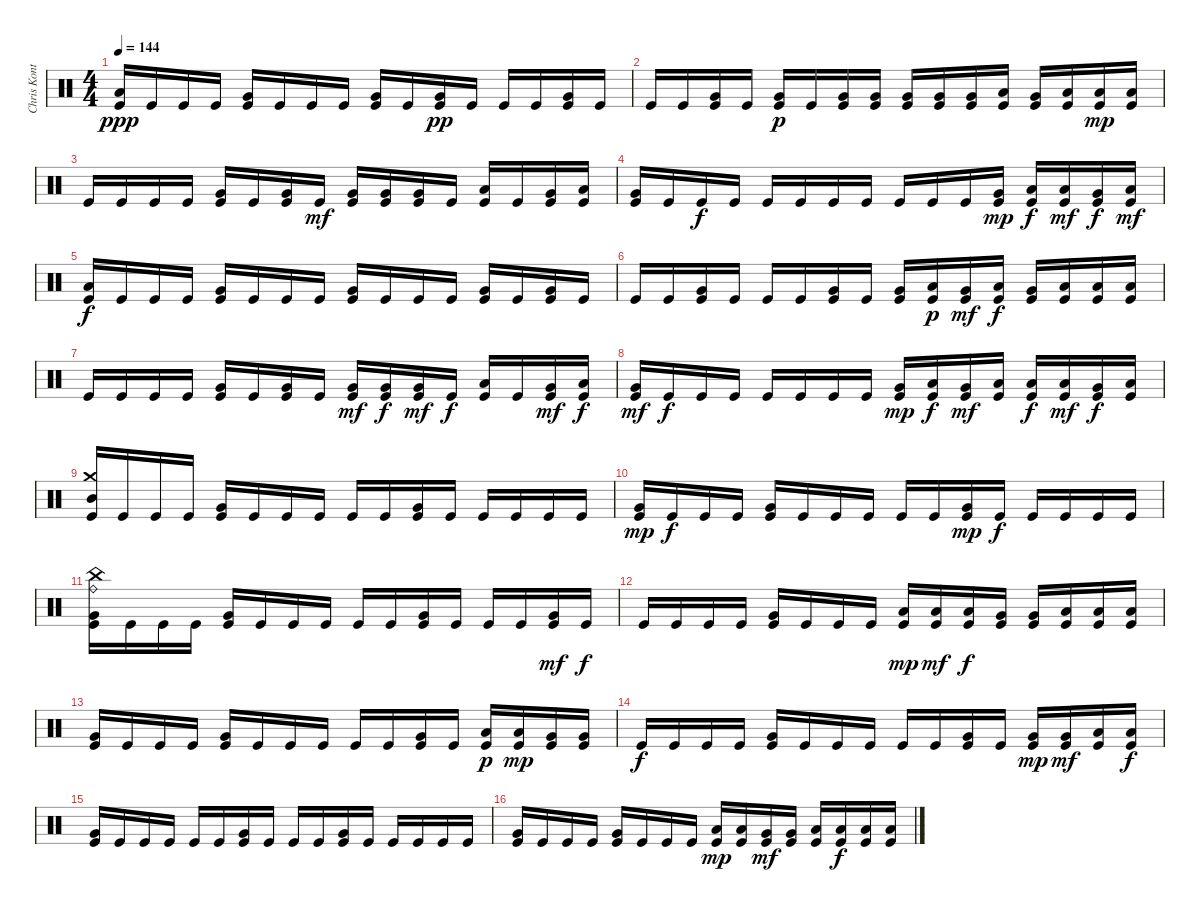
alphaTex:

\track ("Chris Kontos" "Chris Kont") {instrument percussion}
\staff {score}
\articulation defaults
\ts (4 4)
\tempo 144
\clef neutral
\ks c
("Low Tom (hit)" "Kick (hit)").16{dy ppp} "Kick (hit)".16 "Kick (hit)".16 "Kick (hit)".16 ("Very Low Tom (hit)" "Kick (hit)").16 "Kick (hit)".16 "Kick (hit)".16 "Kick (hit)".16 ("Very Low Tom (hit)" "Kick (hit)").16 "Kick (hit)".16 ("Very Low Tom (hit)" "Kick (hit)").16{dy pp} "Kick (hit)".16 "Kick (hit)".16 "Kick (hit)".16 ("Very Low Tom (hit)" "Kick (hit)").16 "Kick (hit)".16 |
"Kick (hit)".16 "Kick (hit)".16 ("Very Low Tom (hit)" "Kick (hit)").16 "Kick (hit)".16 ("Very Low Tom (hit)" "Kick (hit)").16{dy p} "Kick (hit)".16 ("Very Low Tom (hit)" "Kick (hit)").16 ("Very Low Tom (hit)" "Kick (hit)").16 ("Very Low Tom (hit)" "Kick (hit)").16 ("Very Low Tom (hit)" "Kick (hit)").16 ("Very Low Tom (hit)" "Kick (hit)").16 ("Low Floor Tom (hit)" "Kick (hit)").16 ("Very Low Tom (hit)" "Kick (hit)").16 ("Low Floor Tom (hit)" "Kick (hit)").16 ("Low Floor Tom (hit)" "Kick (hit)").16{dy mp} ("Low Floor Tom (hit)" "Kick (hit)").16 |
"Kick (hit)".16 "Kick (hit)".16 "Kick (hit)".16 "Kick (hit)".16 ("Very Low Tom (hit)" "Kick (hit)").16 "Kick (hit)".16 ("Very Low Tom (hit)" "Kick (hit)").16 "Kick (hit)".16{dy mf} ("Very Low Tom (hit)" "Kick (hit)").16 ("Very Low Tom (hit)" "Kick (hit)").16 ("Very Low Tom (hit)" "Kick (hit)").16 "Kick (hit)".16 ("Low Floor Tom (hit)" "Kick (hit)").16 "Kick (hit)".16 ("Very Low Tom (hit)" "Kick (hit)").16 ("Low Floor Tom (hit)" "Kick (hit)").16 |
("Very Low Tom (hit)" "Kick (hit)").16 "Kick (hit)".16 "Kick (hit)".16{dy f} "Kick (hit)".16 "Kick (hit)".16 "Kick (hit)".16 "Kick (hit)".16 "Kick (hit)".16 "Kick (hit)".16 "Kick (hit)".16 "Kick (hit)".16 ("Very Low Tom (hit)" "Kick (hit)").16{dy mp} ("Low Floor Tom (hit)" "Kick (hit)").16{dy f} ("Low Tom (hit)" "Kick (hit)").16{dy mf} ("Very Low Tom (hit)" "Kick (hit)").16{dy f} ("Low Floor Tom (hit)" "Kick (hit)").16{dy mf} |
("Low Tom (hit)" "Kick (hit)").16{dy f} "Kick (hit)".16 "Kick (hit)".16 "Kick (hit)".16 ("Very Low Tom (hit)" "Kick (hit)").16 "Kick (hit)".16 "Kick (hit)".16 "Kick (hit)".16 ("Very Low Tom (hit)" "Kick (hit)").16 "Kick (hit)".16 "Kick (hit)".16 "Kick (hit)".16 ("Very Low Tom (hit)" "Kick (hit)").16 "Kick (hit)".16 ("Very Low Tom (hit)" "Kick (hit)").16 "Kick (hit)".16 |
"Kick (hit)".16 "Kick (hit)".16 ("Very Low Tom (hit)" "Kick (hit)").16 "Kick (hit)".16 "Kick (hit)".16 "Kick (hit)".16 ("Very Low Tom (hit)" "Kick (hit)").16 "Kick (hit)".16 ("Very Low Tom (hit)" "Kick (hit)").16 ("Low Tom (hit)" "Kick (hit)").16{dy p} ("Very Low Tom (hit)" "Kick (hit)").16{dy mf} ("Low Floor Tom (hit)" "Kick (hit)").16{dy f} ("Very Low Tom (hit)" "Kick (hit)").16 ("Low Floor Tom (hit)" "Kick (hit)").16 ("Low Floor Tom (hit)" "Kick (hit)").16 ("Low Floor Tom (hit)" "Kick (hit)").16 |
"Kick (hit)".16 "Kick (hit)".16 "Kick (hit)".16 "Kick (hit)".16 ("Very Low Tom (hit)" "Kick (hit)").16 "Kick (hit)".16 ("Very Low Tom (hit)" "Kick (hit)").16 "Kick (hit)".16 ("Very Low Tom (hit)" "Kick (hit)").16{dy mf} ("Very Low Tom (hit)" "Kick (hit)").16{dy f} ("Very Low Tom (hit)" "Kick (hit)").16{dy mf} "Kick (hit)".16{dy f} ("Low Floor Tom (hit)" "Kick (hit)").16 "Kick (hit)".16 ("Very Low Tom (hit)" "Kick (hit)").16{dy mf} ("Low Floor Tom (hit)" "Kick (hit)").16{dy f} |
("Very Low Tom (hit)" "Kick (hit)").16{dy mf} "Kick (hit)".16{dy f} "Kick (hit)".16 "Kick (hit)".16 "Kick (hit)".16 "Kick (hit)".16 "Kick (hit)".16 "Kick (hit)".16 ("Very Low Tom (hit)" "Kick (hit)").16{dy mp} ("Low Floor Tom (hit)" "Kick (hit)").16{dy f} ("Very Low Tom (hit)" "Kick (hit)").16{dy mf} ("Low Tom (hit)" "Kick (hit)").16 ("Low Floor Tom (hit)" "Kick (hit)").16{dy f} ("Low Tom (hit)" "Kick (hit)").16{dy mf} ("Very Low Tom (hit)" "Kick (hit)").16{dy f} ("Low Floor Tom (hit)" "Kick (hit)").16 |
("Crash medium (hit)" "Mid Tom (hit)" "Kick (hit)").16 "Kick (hit)".16 "Kick (hit)".16 "Kick (hit)".16 ("Very Low Tom (hit)" "Kick (hit)").16 "Kick (hit)".16 "Kick (hit)".16 "Kick (hit)".16 "Kick (hit)".16 "Kick (hit)".16 ("Very Low Tom (hit)" "Kick (hit)").16 "Kick (hit)".16 "Kick (hit)".16 "Kick (hit)".16 "Kick (hit)".16 "Kick (hit)".16 |
("Very Low Tom (hit)" "Kick (hit)").16{dy mp} "Kick (hit)".16{dy f} "Kick (hit)".16 "Kick (hit)".16 ("Very Low Tom (hit)" "Kick (hit)").16 "Kick (hit)".16 "Kick (hit)".16 "Kick (hit)".16 "Kick (hit)".16 "Kick (hit)".16 ("Very Low Tom (hit)" "Kick (hit)").16{dy mp} "Kick (hit)".16{dy f} "Kick (hit)".16 "Kick (hit)".16 "Kick (hit)".16 "Kick (hit)".16 |
("China (hit)" "Ride (bell)" "Very Low Tom (hit)" "Kick (hit)").16 "Kick (hit)".16 "Kick (hit)".16 "Kick (hit)".16 ("Very Low Tom (hit)" "Kick (hit)").16 "Kick (hit)".16 "Kick (hit)".16 "Kick (hit)".16 "Kick (hit)".16 "Kick (hit)".16 ("Very Low Tom (hit)" "Kick (hit)").16 "Kick (hit)".16 "Kick (hit)".16 "Kick (hit)".16 ("Very Low Tom (hit)" "Kick (hit)").16{dy mf} "Kick (hit)".16{dy f} |
"Kick (hit)".16 "Kick (hit)".16 "Kick (hit)".16 "Kick (hit)".16 ("Very Low Tom (hit)" "Kick (hit)").16 "Kick (hit)".16 "Kick (hit)".16 "Kick (hit)".16 ("Low Tom (hit)" "Kick (hit)").16{dy mp} ("Low Tom (hit)" "Kick (hit)").16{dy mf} ("Low Tom (hit)" "Kick (hit)").16{dy f} ("Very Low Tom (hit)" "Kick (hit)").16 ("Very Low Tom (hit)" "Kick (hit)").16 ("Low Floor Tom (hit)" "Kick (hit)").16 ("Low Floor Tom (hit)" "Kick (hit)").16 ("Low Floor Tom (hit)" "Kick (hit)").16 |
("Very Low Tom (hit)" "Kick (hit)").16 "Kick (hit)".16 "Kick (hit)".16 "Kick (hit)".16 ("Very Low Tom (hit)" "Kick (hit)").16 "Kick (hit)".16 "Kick (hit)".16 "Kick (hit)".16 "Kick (hit)".16 "Kick (hit)".16 ("Very Low Tom (hit)" "Kick (hit)").16 "Kick (hit)".16 ("Low Floor Tom (hit)" "Kick (hit)").16{dy p} ("Low Floor Tom (hit)" "Kick (hit)").16{dy mp} ("Very Low Tom (hit)" "Kick (hit)").16 ("Very Low Tom (hit)" "Kick (hit)").16 |
"Kick (hit)".16{dy f} "Kick (hit)".16 "Kick (hit)".16 "Kick (hit)".16 ("Very Low Tom (hit)" "Kick (hit)").16 "Kick (hit)".16 "Kick (hit)".16 "Kick (hit)".16 "Kick (hit)".16 "Kick (hit)".16 ("Very Low Tom (hit)" "Kick (hit)").16 "Kick (hit)".16 ("Very Low Tom (hit)" "Kick (hit)").16{dy mp} ("Very Low Tom (hit)" "Kick (hit)").16{dy mf} ("Low Floor Tom (hit)" "Kick (hit)").16 ("Low Floor Tom (hit)" "Kick (hit)").16{dy f} |
("Very Low Tom (hit)" "Kick (hit)").16 "Kick (hit)".16 "Kick (hit)".16 "Kick (hit)".16 "Kick (hit)".16 "Kick (hit)".16 ("Very Low Tom (hit)" "Kick (hit)").16 "Kick (hit)".16 "Kick (hit)".16 "Kick (hit)".16 ("Very Low Tom (hit)" "Kick (hit)").16 "Kick (hit)".16 "Kick (hit)".16 "Kick (hit)".16 "Kick (hit)".16 "Kick (hit)".16 |
("Very Low Tom (hit)" "Kick (hit)").16 "Kick (hit)".16 "Kick (hit)".16 "Kick (hit)".16 ("Very Low Tom (hit)" "Kick (hit)").16 "Kick (hit)".16 "Kick (hit)".16 "Kick (hit)".16 ("Low Tom (hit)" "Kick (hit)").16{dy mp} ("Low Tom (hit)" "Kick (hit)").16 ("Very Low Tom (hit)" "Kick (hit)").16{dy mf} ("Very Low Tom (hit)" "Kick (hit)").16 ("Low Floor Tom (hit)" "Kick (hit)").16 ("Low Floor Tom (hit)" "Kick (hit)").16{dy f} ("Low Floor Tom (hit)" "Kick (hit)").16 ("Low Floor Tom (hit)" "Kick (hit)").16
